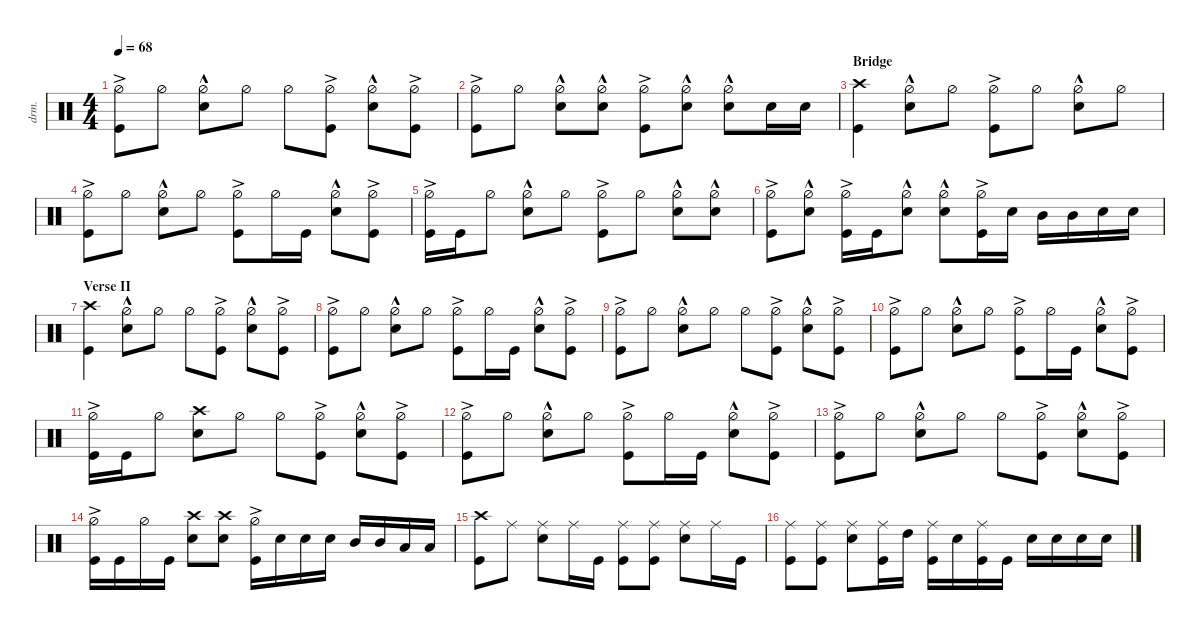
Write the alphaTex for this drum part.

\defaultSystemsLayout 4
\hideDynamics
\bracketExtendMode nobrackets
\otherSystemsTrackNameOrientation horizontal
\track ("Drums" "drm.") {defaultSystemsLayout 4 instrument percussion}
\staff
\articulation defaults
\ts (4 4)
\tempo 68
\clef neutral
\ks c
("Kick (hit)" "Hi-Hat (half)"{ac}).8{dy f} "Hi-Hat (half)".8 ("Snare (hit) 2" "Hi-Hat (half)"{hac}).8 "Hi-Hat (half)".8 "Hi-Hat (half)".8 ("Hi-Hat (half)"{ac} "Kick (hit)").8 ("Snare (hit) 2" "Hi-Hat (half)"{hac}).8 ("Hi-Hat (half)"{ac} "Kick (hit)").8 |
("Kick (hit)" "Hi-Hat (half)"{ac}).8 "Hi-Hat (half)".8 ("Snare (hit) 2" "Hi-Hat (half)"{hac}).8 ("Hi-Hat (half)"{hac} "Snare (hit) 2").8 ("Hi-Hat (half)"{ac} "Kick (hit)").8 ("Hi-Hat (half)"{hac} "Snare (hit) 2").8 ("Snare (hit) 2" "Hi-Hat (half)"{hac}).8 "Snare (hit) 2".16 "Snare (hit) 2".16 |
\section ("" "Bridge")
("Crash high (hit)" "Kick (hit)").4 ("Snare (hit) 2" "Hi-Hat (half)"{hac}).8 "Hi-Hat (half)".8 ("Hi-Hat (half)"{ac} "Kick (hit)").8 "Hi-Hat (half)".8 ("Snare (hit) 2" "Hi-Hat (half)"{hac}).8 "Hi-Hat (half)".8 |
("Kick (hit)" "Hi-Hat (half)"{ac}).8 "Hi-Hat (half)".8 ("Snare (hit) 2" "Hi-Hat (half)"{hac}).8 "Hi-Hat (half)".8 ("Hi-Hat (half)"{ac} "Kick (hit)").8 "Hi-Hat (half)".16 "Kick (hit)".16 ("Snare (hit) 2" "Hi-Hat (half)"{hac}).8 ("Hi-Hat (half)"{ac} "Kick (hit)").8 |
("Kick (hit)" "Hi-Hat (half)"{ac}).16 "Kick (hit)".16 "Hi-Hat (half)".8 ("Snare (hit) 2" "Hi-Hat (half)"{hac}).8 "Hi-Hat (half)".8 ("Hi-Hat (half)"{ac} "Kick (hit)").8 "Hi-Hat (half)".8 ("Snare (hit) 2" "Hi-Hat (half)"{hac}).8 ("Snare (hit) 2" "Hi-Hat (half)"{hac}).8 |
("Kick (hit)" "Hi-Hat (half)"{ac}).8 ("Hi-Hat (half)"{hac} "Snare (hit) 2").8 ("Hi-Hat (half)"{ac} "Kick (hit)").16 "Kick (hit)".16 ("Hi-Hat (half)"{hac} "Snare (hit) 2").8 ("Hi-Hat (half)"{hac} "Snare (hit) 2").8 ("Kick (hit)" "Hi-Hat (half)"{ac}).16 "Snare (hit) 2".16{dy p} "Mid Tom (hit)".16{dy ff} "Mid Tom (hit)".16 "Snare (hit) 2".16{dy mf} "Snare (hit) 2".16{dy f} |
\section ("" "Verse II")
("Crash high (hit)" "Kick (hit)").4 ("Snare (hit) 2" "Hi-Hat (half)"{hac}).8 "Hi-Hat (half)".8 "Hi-Hat (half)".8 ("Hi-Hat (half)"{ac} "Kick (hit)").8 ("Snare (hit) 2" "Hi-Hat (half)"{hac}).8 ("Hi-Hat (half)"{ac} "Kick (hit)").8 |
("Kick (hit)" "Hi-Hat (half)"{ac}).8 "Hi-Hat (half)".8 ("Snare (hit) 2" "Hi-Hat (half)"{hac}).8 "Hi-Hat (half)".8 ("Hi-Hat (half)"{ac} "Kick (hit)").8 "Hi-Hat (half)".16 "Kick (hit)".16 ("Snare (hit) 2" "Hi-Hat (half)"{hac}).8 ("Hi-Hat (half)"{ac} "Kick (hit)").8 |
("Kick (hit)" "Hi-Hat (half)"{ac}).8 "Hi-Hat (half)".8 ("Snare (hit) 2" "Hi-Hat (half)"{hac}).8 "Hi-Hat (half)".8 "Hi-Hat (half)".8 ("Hi-Hat (half)"{ac} "Kick (hit)").8 ("Snare (hit) 2" "Hi-Hat (half)"{hac}).8 ("Hi-Hat (half)"{ac} "Kick (hit)").8 |
("Kick (hit)" "Hi-Hat (half)"{ac}).8 "Hi-Hat (half)".8 ("Snare (hit) 2" "Hi-Hat (half)"{hac}).8 "Hi-Hat (half)".8 ("Hi-Hat (half)"{ac} "Kick (hit)").8 "Hi-Hat (half)".16 "Kick (hit)".16 ("Snare (hit) 2" "Hi-Hat (half)"{hac}).8 ("Hi-Hat (half)"{ac} "Kick (hit)").8 |
("Kick (hit)" "Hi-Hat (half)"{ac}).16 "Kick (hit)".16 "Hi-Hat (half)".8 ("Snare (hit) 2" "Crash high (hit)").8 "Hi-Hat (half)".8 "Hi-Hat (half)".8 ("Hi-Hat (half)"{ac} "Kick (hit)").8 ("Snare (hit) 2" "Hi-Hat (half)"{hac}).8 ("Hi-Hat (half)"{ac} "Kick (hit)").8 |
("Kick (hit)" "Hi-Hat (half)"{ac}).8 "Hi-Hat (half)".8 ("Snare (hit) 2" "Hi-Hat (half)"{hac}).8 "Hi-Hat (half)".8 ("Hi-Hat (half)"{ac} "Kick (hit)").8 "Hi-Hat (half)".16 "Kick (hit)".16 ("Snare (hit) 2" "Hi-Hat (half)"{hac}).8 ("Hi-Hat (half)"{ac} "Kick (hit)").8 |
("Kick (hit)" "Hi-Hat (half)"{ac}).8 "Hi-Hat (half)".8 ("Snare (hit) 2" "Hi-Hat (half)"{hac}).8 "Hi-Hat (half)".8 "Hi-Hat (half)".8 ("Hi-Hat (half)"{ac} "Kick (hit)").8 ("Snare (hit) 2" "Hi-Hat (half)"{hac}).8 ("Hi-Hat (half)"{ac} "Kick (hit)").8 |
("Kick (hit)" "Hi-Hat (half)"{ac}).16 "Kick (hit)".16 "Hi-Hat (half)".16 "Kick (hit)".16 ("Snare (hit) 2" "Crash high (hit)").8 ("Snare (hit) 2" "Crash high (hit)").8 ("Kick (hit)" "Hi-Hat (half)"{ac}).16 "Snare (hit) 2".16 "Snare (hit) 2".16 "Snare (hit) 2".16 "Mid Tom (hit)".16{dy ff} "Mid Tom (hit)".16 "Low Tom (hit)".16 "Low Tom (hit)".16 |
("Crash high (hit)" "Kick (hit)").8{dy f} "Ride (middle)".8 ("Snare (hit) 2" "Ride (middle)").8 "Ride (middle)".16 "Kick (hit)".16 ("Kick (hit)" "Ride (middle)").8 ("Kick (hit)" "Ride (middle)").8 ("Snare (hit) 2" "Ride (middle)").8 "Ride (middle)".16 "Kick (hit)".16 |
("Kick (hit)" "Ride (middle)").8 ("Kick (hit)" "Ride (middle)").8 ("Snare (hit) 2" "Ride (middle)").8 ("Kick (hit)" "Ride (middle)").16 "High Tom (hit)".16{dy ff} ("Kick (hit)" "Ride (middle)").16{dy f} "Snare (hit) 2".16 ("Kick (hit)" "Ride (middle)").16 "Kick (hit)".16 "Snare (hit) 2".16 "Snare (hit) 2".16 "Snare (hit) 2".16 "Snare (hit) 2".16
